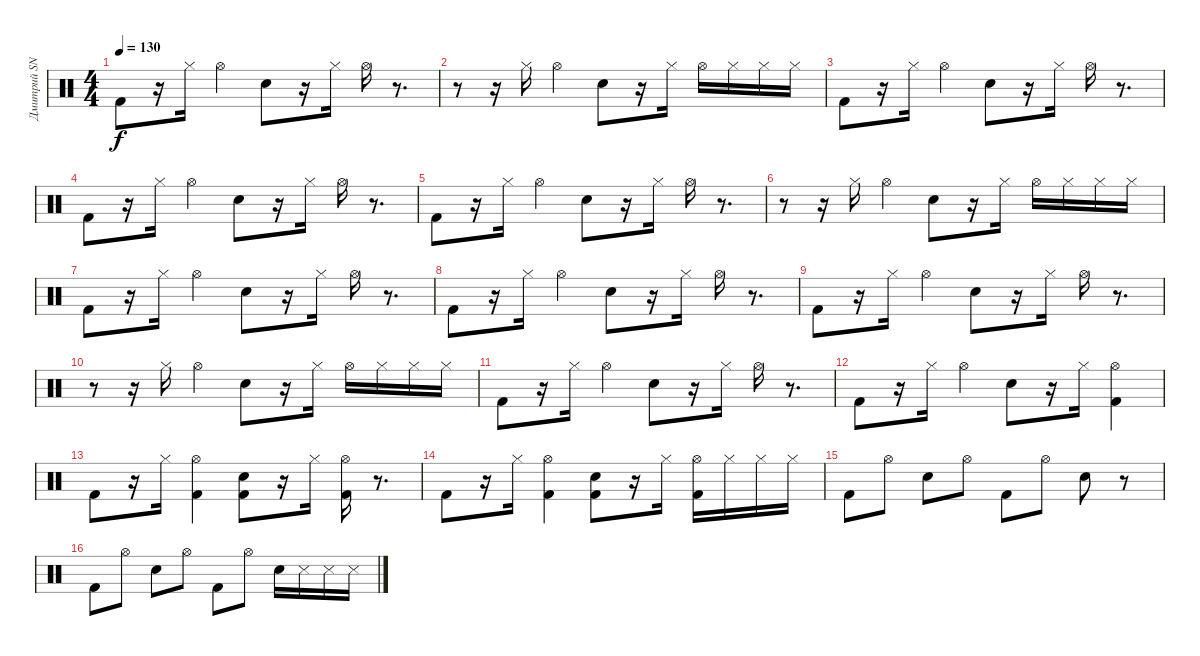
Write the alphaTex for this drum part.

\track ("Дмитрий SNAKE Хакимов (ударные)" "Дмитрий SN") {instrument percussion}
\staff {score}
\articulation defaults
\ts (4 4)
\tempo 130
\clef neutral
\ks c "Kick (hit) 2".8{dy f}
r.16 "Hi-Hat (closed)".16 "Hi-Hat (open)".4 "Snare (hit) 2".8 r.16 "Hi-Hat (closed)".16 "Hi-Hat (open)".16 r.8{d} |
r.8 r.16 "Hi-Hat (closed)".16 "Hi-Hat (open)".4 "Snare (hit) 2".8 r.16 "Hi-Hat (closed)".16 "Hi-Hat (open)".16 "Hi-Hat (closed)".16 "Hi-Hat (closed)".16 "Hi-Hat (closed)".16 |
"Kick (hit) 2".8 r.16 "Hi-Hat (closed)".16 "Hi-Hat (open)".4 "Snare (hit) 2".8 r.16 "Hi-Hat (closed)".16 "Hi-Hat (open)".16 r.8{d} |
"Kick (hit) 2".8 r.16 "Hi-Hat (closed)".16 "Hi-Hat (open)".4 "Snare (hit) 2".8 r.16 "Hi-Hat (closed)".16 "Hi-Hat (open)".16 r.8{d} |
"Kick (hit) 2".8 r.16 "Hi-Hat (closed)".16 "Hi-Hat (open)".4 "Snare (hit) 2".8 r.16 "Hi-Hat (closed)".16 "Hi-Hat (open)".16 r.8{d} |
r.8 r.16 "Hi-Hat (closed)".16 "Hi-Hat (open)".4 "Snare (hit) 2".8 r.16 "Hi-Hat (closed)".16 "Hi-Hat (open)".16 "Hi-Hat (closed)".16 "Hi-Hat (closed)".16 "Hi-Hat (closed)".16 |
"Kick (hit) 2".8 r.16 "Hi-Hat (closed)".16 "Hi-Hat (open)".4 "Snare (hit) 2".8 r.16 "Hi-Hat (closed)".16 "Hi-Hat (open)".16 r.8{d} |
"Kick (hit) 2".8 r.16 "Hi-Hat (closed)".16 "Hi-Hat (open)".4 "Snare (hit) 2".8 r.16 "Hi-Hat (closed)".16 "Hi-Hat (open)".16 r.8{d} |
"Kick (hit) 2".8 r.16 "Hi-Hat (closed)".16 "Hi-Hat (open)".4 "Snare (hit) 2".8 r.16 "Hi-Hat (closed)".16 "Hi-Hat (open)".16 r.8{d} |
r.8 r.16 "Hi-Hat (closed)".16 "Hi-Hat (open)".4 "Snare (hit) 2".8 r.16 "Hi-Hat (closed)".16 "Hi-Hat (open)".16 "Hi-Hat (closed)".16 "Hi-Hat (closed)".16 "Hi-Hat (closed)".16 |
"Kick (hit) 2".8 r.16 "Hi-Hat (closed)".16 "Hi-Hat (open)".4 "Snare (hit) 2".8 r.16 "Hi-Hat (closed)".16 "Hi-Hat (open)".16 r.8{d} |
"Kick (hit) 2".8 r.16 "Hi-Hat (closed)".16 "Hi-Hat (open)".4 "Snare (hit) 2".8 r.16 "Hi-Hat (closed)".16 ("Hi-Hat (open)" "Kick (hit) 2").4 |
"Kick (hit) 2".8 r.16 "Hi-Hat (closed)".16 ("Hi-Hat (open)" "Kick (hit) 2").4 ("Snare (hit) 2" "Kick (hit) 2").8 r.16 "Hi-Hat (closed)".16 ("Hi-Hat (open)" "Kick (hit) 2").16 r.8{d} |
"Kick (hit) 2".8 r.16 "Hi-Hat (closed)".16 ("Hi-Hat (open)" "Kick (hit) 2").4 ("Snare (hit) 2" "Kick (hit) 2").8 r.16 "Hi-Hat (closed)".16 ("Hi-Hat (open)" "Kick (hit) 2").16 "Hi-Hat (closed)".16 "Hi-Hat (closed)".16 "Hi-Hat (closed)".16 |
"Kick (hit) 2".8 "Hi-Hat (open)".8 "Snare (hit) 2".8 "Hi-Hat (open)".8 "Kick (hit) 2".8 "Hi-Hat (open)".8 "Snare (hit) 2".8 r.8 |
"Kick (hit) 2".8 "Hi-Hat (open)".8 "Snare (hit) 2".8 "Hi-Hat (open)".8 "Kick (hit) 2".8 "Hi-Hat (open)".8 "Snare (hit) 2".16 "Snare (side stick) 3".16 "Snare (side stick) 3".16 "Snare (side stick) 3".16
